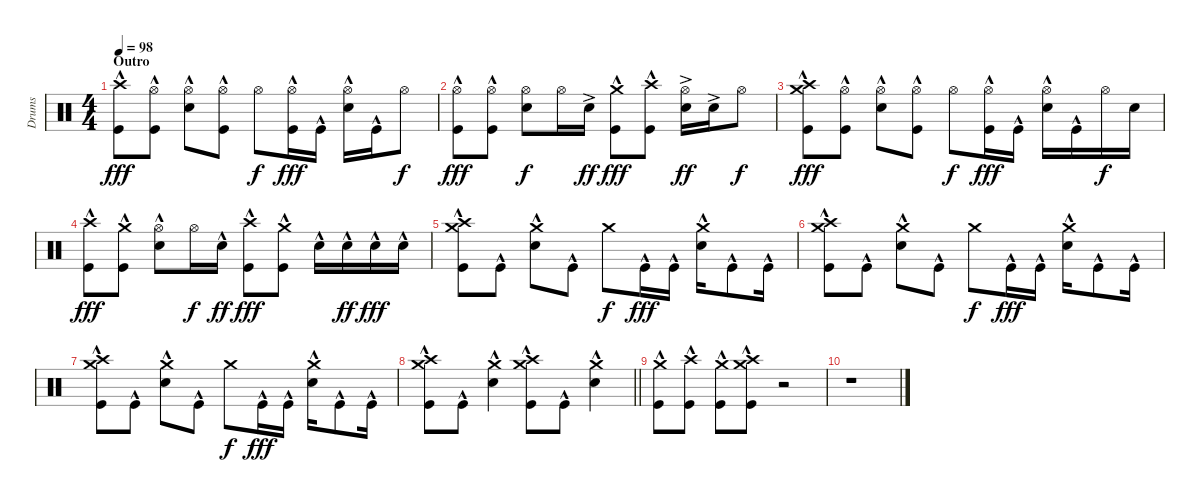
\track ("Drums" "Drums") {instrument percussion}
\staff {score}
\articulation defaults
\ts (4 4)
\section ("" "Outro")
\tempo 98
\clef neutral
\ks c
("Crash high (hit)" "Kick (hit)"{hac}).8{dy fff} ("Hi-Hat (open)" "Kick (hit)"{hac}).8 ("Hi-Hat (open)" "Snare (hit) 2"{hac}).8 ("Hi-Hat (open)" "Kick (hit)"{hac}).8 "Hi-Hat (open)".8{dy f} ("Hi-Hat (open)" "Kick (hit)"{hac}).16{dy fff} "Kick (hit)"{hac}.16 ("Hi-Hat (open)" "Snare (hit) 2"{hac}).16 "Kick (hit)"{hac}.16 "Hi-Hat (open)".8{dy f} |
("Hi-Hat (open)" "Kick (hit)"{hac}).8{dy fff} ("Hi-Hat (open)" "Kick (hit)"{hac}).8 ("Hi-Hat (open)" "Snare (hit) 2").8{dy f} "Hi-Hat (open)".16 "Snare (hit) 2"{ac}.16{dy ff} ("Crash medium (hit)" "Kick (hit)"{hac}).8{dy fff} ("Crash high (hit)" "Kick (hit)"{hac}).8 ("Hi-Hat (open)" "Snare (hit) 2"{ac}).16{dy ff} "Snare (hit) 2"{ac}.16 "Hi-Hat (open)".8{dy f} |
("Crash medium (hit)" "Crash high (hit)" "Kick (hit)"{hac}).8{dy fff} ("Hi-Hat (open)" "Kick (hit)"{hac}).8 ("Hi-Hat (open)" "Snare (hit) 2"{hac}).8 ("Hi-Hat (open)" "Kick (hit)"{hac}).8 "Hi-Hat (open)".8{dy f} ("Hi-Hat (open)" "Kick (hit)"{hac}).16{dy fff} "Kick (hit)"{hac}.16 ("Hi-Hat (open)" "Snare (hit) 2"{hac}).16 "Kick (hit)"{hac}.16 "Hi-Hat (open)".16{dy f} "Snare (hit) 2".16 |
("Crash high (hit)" "Kick (hit)"{hac}).8{dy fff} ("Crash medium (hit)" "Kick (hit)"{hac}).8 ("Hi-Hat (open)" "Snare (hit) 2"{hac}).8 "Hi-Hat (open)".16{dy f} "Snare (hit) 2"{hac}.16{dy ff} ("Crash high (hit)" "Kick (hit)"{hac}).8{dy fff} ("Crash medium (hit)" "Kick (hit)"{hac}).8 "Snare (hit) 2"{hac}.16 "Snare (hit) 2"{hac}.16{dy ff} "Snare (hit) 2"{hac}.16{dy fff} "Snare (hit) 2"{hac}.16 |
("Crash medium (hit)" "Crash high (hit)" "Kick (hit)"{hac}).8 "Kick (hit)"{hac}.8 ("Crash medium (hit)" "Snare (hit) 2"{hac}).8 "Kick (hit)"{hac}.8 "Crash medium (hit)".8{dy f} "Kick (hit)"{hac}.16{dy fff} "Kick (hit)"{hac}.16 ("Crash medium (hit)" "Snare (hit) 2"{hac}).16 "Kick (hit)"{hac}.8 "Kick (hit)"{hac}.16 |
("Crash medium (hit)" "Crash high (hit)" "Kick (hit)"{hac}).8 "Kick (hit)"{hac}.8 ("Crash medium (hit)" "Snare (hit) 2"{hac}).8 "Kick (hit)"{hac}.8 "Crash medium (hit)".8{dy f} "Kick (hit)"{hac}.16{dy fff} "Kick (hit)"{hac}.16 ("Crash medium (hit)" "Snare (hit) 2"{hac}).16 "Kick (hit)"{hac}.8 "Kick (hit)"{hac}.16 |
("Crash medium (hit)" "Crash high (hit)" "Kick (hit)"{hac}).8 "Kick (hit)"{hac}.8 ("Crash medium (hit)" "Snare (hit) 2"{hac}).8 "Kick (hit)"{hac}.8 "Crash medium (hit)".8{dy f} "Kick (hit)"{hac}.16{dy fff} "Kick (hit)"{hac}.16 ("Crash medium (hit)" "Snare (hit) 2"{hac}).16 "Kick (hit)"{hac}.8 "Kick (hit)"{hac}.16 |
\barLineRight lightlight
("Crash medium (hit)" "Crash high (hit)" "Kick (hit)"{hac}).8 "Kick (hit)"{hac}.8 ("Crash medium (hit)" "Snare (hit) 2"{hac}).4 ("Crash medium (hit)" "Crash high (hit)" "Kick (hit)"{hac}).8 "Kick (hit)"{hac}.8 ("Crash medium (hit)" "Snare (hit) 2"{hac}).4 |
("Crash medium (hit)" "Kick (hit)"{hac}).8 ("Crash high (hit)" "Kick (hit)"{hac}).8 ("Crash medium (hit)" "Kick (hit)"{hac}).8 ("Crash medium (hit)" "Crash high (hit)" "Kick (hit)"{hac}).8 r.2 |
r.1
